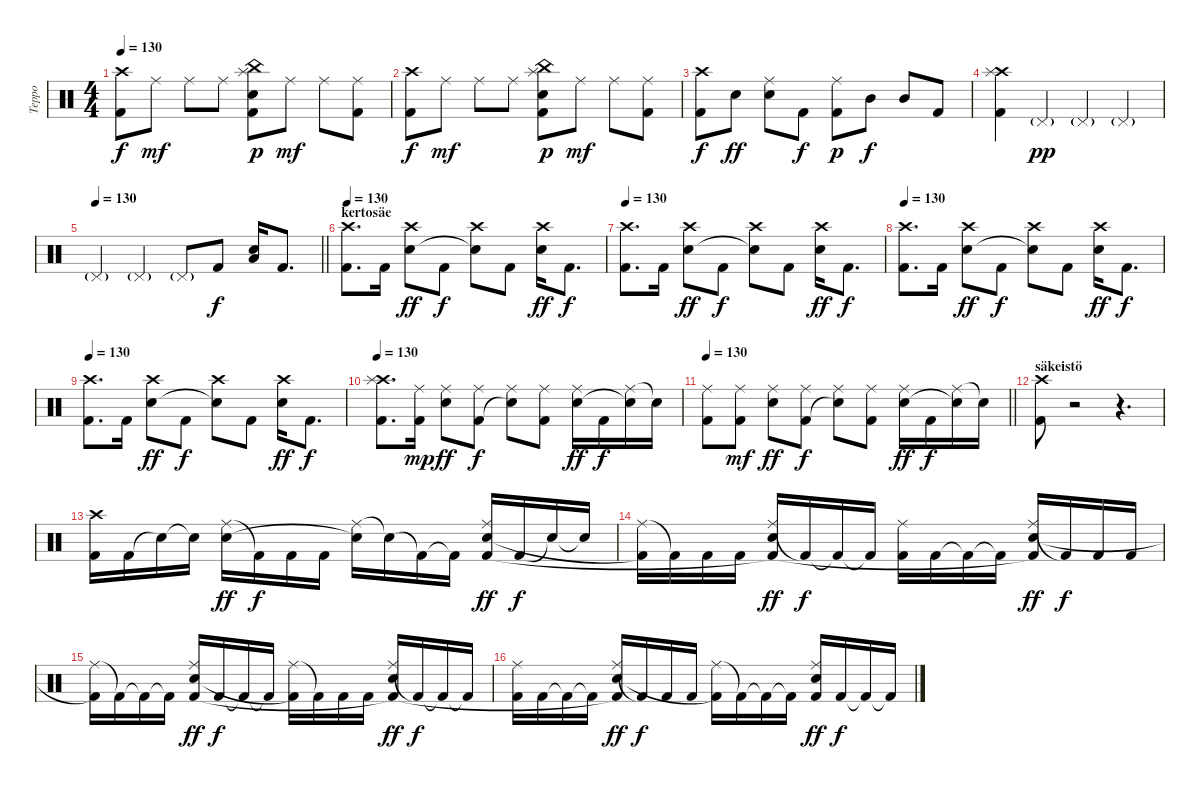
\track ("Teppo" "Teppo") {instrument percussion}
\staff {score}
\articulation defaults
\ts (4 4)
\tempo 130
\clef neutral
\ks c
("Crash high (hit)" "Kick (hit) 2").8{dy f} "Ride (middle)".8{dy mf} "Ride (middle)".8 "Ride (middle)".8 ("Splash (hit)" "China (hit)" "Electric Snare (hit)" "Kick (hit) 2").8{dy p} "Ride (middle)".8{dy mf} "Ride (middle)".8 ("Ride (middle)" "Kick (hit) 2").8 |
("Crash high (hit)" "Kick (hit) 2").8{dy f} "Ride (middle)".8{dy mf} "Ride (middle)".8 "Ride (middle)".8 ("Splash (hit)" "China (hit)" "Electric Snare (hit)" "Kick (hit) 2").8{dy p} "Ride (middle)".8{dy mf} "Ride (middle)".8 ("Ride (middle)" "Kick (hit) 2").8 |
("Crash high (hit)" "Kick (hit) 2").8{dy f} "Electric Snare (hit)".8{dy ff} ("Ride (middle)" "Electric Snare (hit)").8 "Kick (hit) 2".8{dy f} ("Ride (middle)" "Kick (hit) 2").8{dy p} "Mid Tom (hit)".8{dy f} "Mid Tom (hit)".8 "Kick (hit) 2".8 |
("Crash high (hit)" "Splash (hit)" "Kick (hit) 2").4 "Pedal Hi-Hat (hit)"{g}.4{dy pp} "Pedal Hi-Hat (hit)"{g}.4 "Pedal Hi-Hat (hit)"{g}.4 |
\tempo 130
\barLineRight lightlight "Pedal Hi-Hat (hit)"{g}.4 "Pedal Hi-Hat (hit)"{g}.4 "Pedal Hi-Hat (hit)"{g}.8 "Kick (hit) 2".8{dy f}
("Low Tom (hit)" "Electric Snare (hit)").16 "Kick (hit) 2".8{d} |
\section ("" "kertosäe")
\tempo 130
("Crash high (hit)" "Kick (hit) 2").8{d} "Kick (hit) 2".16 ("Crash high (hit)" "Electric Snare (hit)").8{dy ff} "Kick (hit) 2".8{dy f} ("Crash high (hit)" "Snare (hit)"{t}).8 "Kick (hit) 2".8 ("Crash high (hit)" "Electric Snare (hit)").16{dy ff} "Kick (hit) 2".8{d dy f} |
\tempo 130
("Crash high (hit)" "Kick (hit) 2").8{d} "Kick (hit) 2".16 ("Crash high (hit)" "Electric Snare (hit)").8{dy ff} "Kick (hit) 2".8{dy f} ("Crash high (hit)" "Snare (hit)"{t}).8 "Kick (hit) 2".8 ("Crash high (hit)" "Electric Snare (hit)").16{dy ff} "Kick (hit) 2".8{d dy f} |
\tempo 130
("Crash high (hit)" "Kick (hit) 2").8{d} "Kick (hit) 2".16 ("Crash high (hit)" "Electric Snare (hit)").8{dy ff} "Kick (hit) 2".8{dy f} ("Crash high (hit)" "Snare (hit)"{t}).8 "Kick (hit) 2".8 ("Crash high (hit)" "Electric Snare (hit)").16{dy ff} "Kick (hit) 2".8{d dy f} |
\tempo 130
("Crash high (hit)" "Kick (hit) 2").8{d} "Kick (hit) 2".16 ("Crash high (hit)" "Electric Snare (hit)").8{dy ff} "Kick (hit) 2".8{dy f} ("Crash high (hit)" "Snare (hit)"{t}).8 "Kick (hit) 2".8 ("Crash high (hit)" "Electric Snare (hit)").16{dy ff} "Kick (hit) 2".8{d dy f} |
\tempo 130
("Crash high (hit)" "Splash (hit)" "Kick (hit) 2").8{d} ("Ride (middle)" "Kick (hit) 2").16{dy mp} ("Ride (middle)" "Electric Snare (hit)").8{dy ff} ("Ride (middle)" "Kick (hit) 2").8{dy f} ("Ride (middle)" "Snare (hit)"{t}).8 ("Ride (middle)" "Kick (hit) 2").8 ("Ride (middle)" "Electric Snare (hit)").16{dy ff} "Kick (hit) 2".16{dy f} ("Ride (middle)" "Snare (hit)"{t}).16 "Snare (hit)"{t}.16 |
\tempo 130
\barLineRight lightlight
("Ride (middle)" "Kick (hit) 2").8 ("Ride (middle)" "Kick (hit) 2").8{dy mf} ("Ride (middle)" "Electric Snare (hit)").8{dy ff} ("Ride (middle)" "Kick (hit) 2").8{dy f} ("Ride (middle)" "Snare (hit)"{t}).8 ("Ride (middle)" "Kick (hit) 2").8 ("Ride (middle)" "Electric Snare (hit)").16{dy ff} "Kick (hit) 2".16{dy f} ("Ride (middle)" "Snare (hit)"{t}).16 "Snare (hit)"{t}.16 |
\section ("" "säkeistö")
("Crash high (hit)" "Kick (hit) 2").8 r.2 r.4{d} |
("Crash high (hit)" "Kick (hit) 2").16 "Kick (hit) 2".16 "Snare (hit)"{t}.16 "Snare (hit)"{t}.16 ("Ride (middle)" "Electric Snare (hit)").16{dy ff} "Kick (hit) 2"{t}.16{dy f} "Kick (hit) 2".16 "Kick (hit) 2".16 ("Ride (middle)" "Snare (hit)"{t}).16 "Snare (hit)"{t}.16 "Kick (hit) 2"{t}.16 "Kick (hit) 2"{t}.16 ("Ride (middle)" "Electric Snare (hit)" "Kick (hit) 2").16{dy ff} "Kick (hit) 2".16{dy f} "Snare (hit)"{t}.16 "Snare (hit)"{t}.16 |
("Ride (middle)" "Kick (hit) 2"{t}).16 "Kick (hit) 2"{t}.16 "Kick (hit) 2".16 "Kick (hit) 2".16 ("Ride (middle)" "Electric Snare (hit)" "Kick (hit) 2"{t}).16{dy ff} "Kick (hit) 2"{t}.16{dy f} "Kick (hit) 2"{t}.16 "Kick (hit) 2"{t}.16 ("Ride (middle)" "Kick (hit) 2").16 "Kick (hit) 2".16 "Kick (hit) 2"{t}.16 "Kick (hit) 2"{t}.16 ("Ride (middle)" "Electric Snare (hit)" "Kick (hit) 2"{t}).16{dy ff} "Kick (hit) 2"{t}.16{dy f} "Kick (hit) 2".16 "Kick (hit) 2".16 |
("Ride (middle)" "Kick (hit) 2"{t}).16 "Kick (hit) 2"{t}.16 "Kick (hit) 2"{t}.16 "Kick (hit) 2"{t}.16 ("Ride (middle)" "Electric Snare (hit)" "Kick (hit) 2").16{dy ff} "Kick (hit) 2".16{dy f} "Kick (hit) 2"{t}.16 "Kick (hit) 2"{t}.16 ("Ride (middle)" "Kick (hit) 2"{t}).16 "Kick (hit) 2"{t}.16 "Kick (hit) 2".16 "Kick (hit) 2".16 ("Ride (middle)" "Electric Snare (hit)" "Kick (hit) 2"{t}).16{dy ff} "Kick (hit) 2"{t}.16{dy f} "Kick (hit) 2"{t}.16 "Kick (hit) 2"{t}.16 |
("Ride (middle)" "Kick (hit) 2").16 "Kick (hit) 2".16 "Kick (hit) 2"{t}.16 "Kick (hit) 2"{t}.16 ("Ride (middle)" "Electric Snare (hit)" "Kick (hit) 2"{t}).16{dy ff} "Kick (hit) 2"{t}.16{dy f} "Kick (hit) 2".16 "Kick (hit) 2".16 ("Ride (middle)" "Kick (hit) 2"{t}).16 "Kick (hit) 2"{t}.16 "Kick (hit) 2"{t}.16 "Kick (hit) 2"{t}.16 ("Ride (middle)" "Electric Snare (hit)" "Kick (hit) 2").16{dy ff} "Kick (hit) 2".16{dy f} "Kick (hit) 2"{t}.16 "Kick (hit) 2"{t}.16
